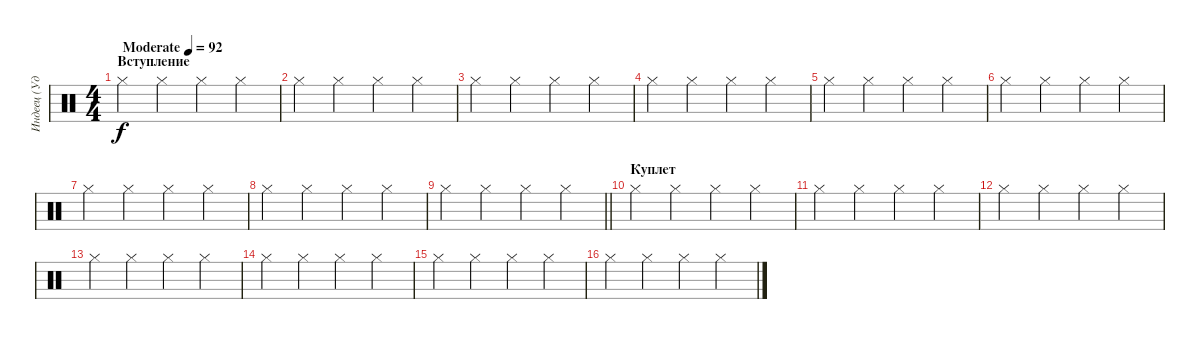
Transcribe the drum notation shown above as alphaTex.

\track ("Индеец (Ударные)" "Индеец (Уд") {instrument percussion}
\staff {score}
\articulation defaults
\ts (4 4)
\section ("" "Вступление")
\tempo (92 "Moderate")
\clef neutral
\ks c "Hi-Hat (closed)".4{dy f} "Hi-Hat (closed)".4 "Hi-Hat (closed)".4 "Hi-Hat (closed)".4
|
"Hi-Hat (closed)".4 "Hi-Hat (closed)".4 "Hi-Hat (closed)".4 "Hi-Hat (closed)".4 |
"Hi-Hat (closed)".4 "Hi-Hat (closed)".4 "Hi-Hat (closed)".4 "Hi-Hat (closed)".4 |
"Hi-Hat (closed)".4 "Hi-Hat (closed)".4 "Hi-Hat (closed)".4 "Hi-Hat (closed)".4 |
"Hi-Hat (closed)".4 "Hi-Hat (closed)".4 "Hi-Hat (closed)".4 "Hi-Hat (closed)".4 |
"Hi-Hat (closed)".4 "Hi-Hat (closed)".4 "Hi-Hat (closed)".4 "Hi-Hat (closed)".4 |
"Hi-Hat (closed)".4 "Hi-Hat (closed)".4 "Hi-Hat (closed)".4 "Hi-Hat (closed)".4 |
"Hi-Hat (closed)".4 "Hi-Hat (closed)".4 "Hi-Hat (closed)".4 "Hi-Hat (closed)".4 |
\barLineRight lightlight "Hi-Hat (closed)".4 "Hi-Hat (closed)".4 "Hi-Hat (closed)".4 "Hi-Hat (closed)".4
|
\section ("" "Куплет")
"Hi-Hat (closed)".4 "Hi-Hat (closed)".4 "Hi-Hat (closed)".4 "Hi-Hat (closed)".4 |
"Hi-Hat (closed)".4 "Hi-Hat (closed)".4 "Hi-Hat (closed)".4 "Hi-Hat (closed)".4 |
"Hi-Hat (closed)".4 "Hi-Hat (closed)".4 "Hi-Hat (closed)".4 "Hi-Hat (closed)".4 |
"Hi-Hat (closed)".4 "Hi-Hat (closed)".4 "Hi-Hat (closed)".4 "Hi-Hat (closed)".4 |
"Hi-Hat (closed)".4 "Hi-Hat (closed)".4 "Hi-Hat (closed)".4 "Hi-Hat (closed)".4 |
"Hi-Hat (closed)".4 "Hi-Hat (closed)".4 "Hi-Hat (closed)".4 "Hi-Hat (closed)".4 |
"Hi-Hat (closed)".4 "Hi-Hat (closed)".4 "Hi-Hat (closed)".4 "Hi-Hat (closed)".4
